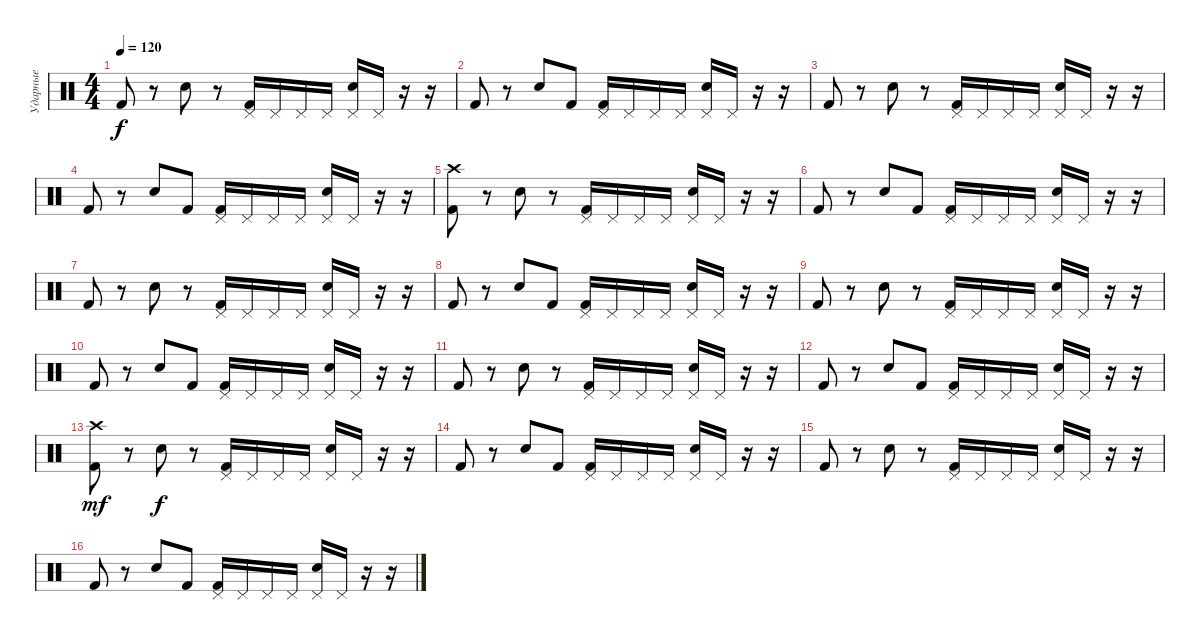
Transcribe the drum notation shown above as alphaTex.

\track ("Ударные" "Ударные") {instrument percussion}
\staff {score}
\articulation defaults
\ts (4 4)
\tempo 120
\clef neutral
\ks c "Kick (hit) 2".8{dy f}
r.8 "Electric Snare (hit)".8 r.8 ("Pedal Hi-Hat (hit)" "Kick (hit) 2").16 "Pedal Hi-Hat (hit)".16 "Pedal Hi-Hat (hit)".16 "Pedal Hi-Hat (hit)".16 ("Pedal Hi-Hat (hit)" "Electric Snare (hit)").16 "Pedal Hi-Hat (hit)".16 r.16 r.16 |
"Kick (hit) 2".8 r.8 "Electric Snare (hit)".8 "Kick (hit) 2".8 ("Pedal Hi-Hat (hit)" "Kick (hit) 2").16 "Pedal Hi-Hat (hit)".16 "Pedal Hi-Hat (hit)".16 "Pedal Hi-Hat (hit)".16 ("Pedal Hi-Hat (hit)" "Electric Snare (hit)").16 "Pedal Hi-Hat (hit)".16 r.16 r.16 |
"Kick (hit) 2".8 r.8 "Electric Snare (hit)".8 r.8 ("Pedal Hi-Hat (hit)" "Kick (hit) 2").16 "Pedal Hi-Hat (hit)".16 "Pedal Hi-Hat (hit)".16 "Pedal Hi-Hat (hit)".16 ("Pedal Hi-Hat (hit)" "Electric Snare (hit)").16 "Pedal Hi-Hat (hit)".16 r.16 r.16 |
"Kick (hit) 2".8 r.8 "Electric Snare (hit)".8 "Kick (hit) 2".8 ("Pedal Hi-Hat (hit)" "Kick (hit) 2").16 "Pedal Hi-Hat (hit)".16 "Pedal Hi-Hat (hit)".16 "Pedal Hi-Hat (hit)".16 ("Pedal Hi-Hat (hit)" "Electric Snare (hit)").16 "Pedal Hi-Hat (hit)".16 r.16 r.16 |
("Crash high (hit)" "Kick (hit) 2").8 r.8 "Electric Snare (hit)".8 r.8 ("Pedal Hi-Hat (hit)" "Kick (hit) 2").16 "Pedal Hi-Hat (hit)".16 "Pedal Hi-Hat (hit)".16 "Pedal Hi-Hat (hit)".16 ("Pedal Hi-Hat (hit)" "Electric Snare (hit)").16 "Pedal Hi-Hat (hit)".16 r.16 r.16 |
"Kick (hit) 2".8 r.8 "Electric Snare (hit)".8 "Kick (hit) 2".8 ("Pedal Hi-Hat (hit)" "Kick (hit) 2").16 "Pedal Hi-Hat (hit)".16 "Pedal Hi-Hat (hit)".16 "Pedal Hi-Hat (hit)".16 ("Pedal Hi-Hat (hit)" "Electric Snare (hit)").16 "Pedal Hi-Hat (hit)".16 r.16 r.16 |
"Kick (hit) 2".8 r.8 "Electric Snare (hit)".8 r.8 ("Pedal Hi-Hat (hit)" "Kick (hit) 2").16 "Pedal Hi-Hat (hit)".16 "Pedal Hi-Hat (hit)".16 "Pedal Hi-Hat (hit)".16 ("Pedal Hi-Hat (hit)" "Electric Snare (hit)").16 "Pedal Hi-Hat (hit)".16 r.16 r.16 |
"Kick (hit) 2".8 r.8 "Electric Snare (hit)".8 "Kick (hit) 2".8 ("Pedal Hi-Hat (hit)" "Kick (hit) 2").16 "Pedal Hi-Hat (hit)".16 "Pedal Hi-Hat (hit)".16 "Pedal Hi-Hat (hit)".16 ("Pedal Hi-Hat (hit)" "Electric Snare (hit)").16 "Pedal Hi-Hat (hit)".16 r.16 r.16 |
"Kick (hit) 2".8 r.8 "Electric Snare (hit)".8 r.8 ("Pedal Hi-Hat (hit)" "Kick (hit) 2").16 "Pedal Hi-Hat (hit)".16 "Pedal Hi-Hat (hit)".16 "Pedal Hi-Hat (hit)".16 ("Pedal Hi-Hat (hit)" "Electric Snare (hit)").16 "Pedal Hi-Hat (hit)".16 r.16 r.16 |
"Kick (hit) 2".8 r.8 "Electric Snare (hit)".8 "Kick (hit) 2".8 ("Pedal Hi-Hat (hit)" "Kick (hit) 2").16 "Pedal Hi-Hat (hit)".16 "Pedal Hi-Hat (hit)".16 "Pedal Hi-Hat (hit)".16 ("Pedal Hi-Hat (hit)" "Electric Snare (hit)").16 "Pedal Hi-Hat (hit)".16 r.16 r.16 |
"Kick (hit) 2".8 r.8 "Electric Snare (hit)".8 r.8 ("Pedal Hi-Hat (hit)" "Kick (hit) 2").16 "Pedal Hi-Hat (hit)".16 "Pedal Hi-Hat (hit)".16 "Pedal Hi-Hat (hit)".16 ("Pedal Hi-Hat (hit)" "Electric Snare (hit)").16 "Pedal Hi-Hat (hit)".16 r.16 r.16 |
"Kick (hit) 2".8 r.8 "Electric Snare (hit)".8 "Kick (hit) 2".8 ("Pedal Hi-Hat (hit)" "Kick (hit) 2").16 "Pedal Hi-Hat (hit)".16 "Pedal Hi-Hat (hit)".16 "Pedal Hi-Hat (hit)".16 ("Pedal Hi-Hat (hit)" "Electric Snare (hit)").16 "Pedal Hi-Hat (hit)".16 r.16 r.16 |
("Crash high (hit)" "Kick (hit) 2").8{dy mf} r.8 "Electric Snare (hit)".8{dy f} r.8 ("Pedal Hi-Hat (hit)" "Kick (hit) 2").16 "Pedal Hi-Hat (hit)".16 "Pedal Hi-Hat (hit)".16 "Pedal Hi-Hat (hit)".16 ("Pedal Hi-Hat (hit)" "Electric Snare (hit)").16 "Pedal Hi-Hat (hit)".16 r.16 r.16 |
"Kick (hit) 2".8 r.8 "Electric Snare (hit)".8 "Kick (hit) 2".8 ("Pedal Hi-Hat (hit)" "Kick (hit) 2").16 "Pedal Hi-Hat (hit)".16 "Pedal Hi-Hat (hit)".16 "Pedal Hi-Hat (hit)".16 ("Pedal Hi-Hat (hit)" "Electric Snare (hit)").16 "Pedal Hi-Hat (hit)".16 r.16 r.16 |
"Kick (hit) 2".8 r.8 "Electric Snare (hit)".8 r.8 ("Pedal Hi-Hat (hit)" "Kick (hit) 2").16 "Pedal Hi-Hat (hit)".16 "Pedal Hi-Hat (hit)".16 "Pedal Hi-Hat (hit)".16 ("Pedal Hi-Hat (hit)" "Electric Snare (hit)").16 "Pedal Hi-Hat (hit)".16 r.16 r.16 |
"Kick (hit) 2".8 r.8 "Electric Snare (hit)".8 "Kick (hit) 2".8 ("Pedal Hi-Hat (hit)" "Kick (hit) 2").16 "Pedal Hi-Hat (hit)".16 "Pedal Hi-Hat (hit)".16 "Pedal Hi-Hat (hit)".16 ("Pedal Hi-Hat (hit)" "Electric Snare (hit)").16 "Pedal Hi-Hat (hit)".16 r.16 r.16
